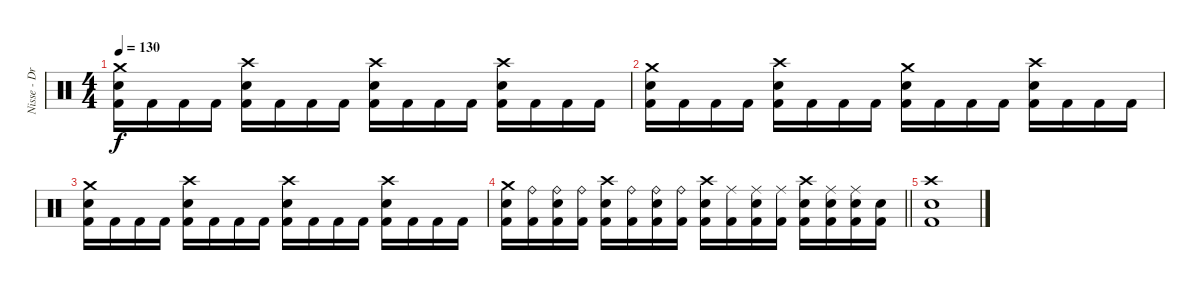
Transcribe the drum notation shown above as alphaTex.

\track ("Nisse - Drums" "Nisse - Dr") {instrument percussion}
\staff {score}
\articulation defaults
\ts (4 4)
\tempo 130
\clef neutral
\ks c
("Crash medium (hit)" "Electric Snare (hit)" "Kick (hit) 2").16{dy f} "Kick (hit) 2".16 "Kick (hit) 2".16 "Kick (hit) 2".16 ("Crash high (hit)" "Electric Snare (hit)" "Kick (hit) 2").16 "Kick (hit) 2".16 "Kick (hit) 2".16 "Kick (hit) 2".16 ("Crash high (hit)" "Electric Snare (hit)" "Kick (hit) 2").16 "Kick (hit) 2".16 "Kick (hit) 2".16 "Kick (hit) 2".16 ("Crash high (hit)" "Electric Snare (hit)" "Kick (hit) 2").16 "Kick (hit) 2".16 "Kick (hit) 2".16 "Kick (hit) 2".16 |
("Crash medium (hit)" "Electric Snare (hit)" "Kick (hit) 2").16 "Kick (hit) 2".16 "Kick (hit) 2".16 "Kick (hit) 2".16 ("Crash high (hit)" "Electric Snare (hit)" "Kick (hit) 2").16 "Kick (hit) 2".16 "Kick (hit) 2".16 "Kick (hit) 2".16 ("Crash medium (hit)" "Electric Snare (hit)" "Kick (hit) 2").16 "Kick (hit) 2".16 "Kick (hit) 2".16 "Kick (hit) 2".16 ("Crash high (hit)" "Electric Snare (hit)" "Kick (hit) 2").16 "Kick (hit) 2".16 "Kick (hit) 2".16 "Kick (hit) 2".16 |
("Crash medium (hit)" "Electric Snare (hit)" "Kick (hit) 2").16 "Kick (hit) 2".16 "Kick (hit) 2".16 "Kick (hit) 2".16 ("Crash high (hit)" "Electric Snare (hit)" "Kick (hit) 2").16 "Kick (hit) 2".16 "Kick (hit) 2".16 "Kick (hit) 2".16 ("Crash high (hit)" "Electric Snare (hit)" "Kick (hit) 2").16 "Kick (hit) 2".16 "Kick (hit) 2".16 "Kick (hit) 2".16 ("Crash high (hit)" "Electric Snare (hit)" "Kick (hit) 2").16 "Kick (hit) 2".16 "Kick (hit) 2".16 "Kick (hit) 2".16 |
\barLineRight lightlight
("Crash medium (hit)" "Electric Snare (hit)" "Kick (hit) 2").16 ("Ride (bell)" "Kick (hit) 2").16 ("Ride (bell)" "Electric Snare (hit)" "Kick (hit) 2").16 ("Ride (bell)" "Kick (hit) 2").16 ("Crash high (hit)" "Electric Snare (hit)" "Kick (hit) 2").16 ("Ride (bell)" "Kick (hit) 2").16 ("Ride (bell)" "Electric Snare (hit)" "Kick (hit) 2").16 ("Ride (bell)" "Kick (hit) 2").16 ("Crash high (hit)" "Electric Snare (hit)" "Kick (hit) 2").16 ("Ride (middle)" "Kick (hit) 2").16 ("Ride (middle)" "Electric Snare (hit)" "Kick (hit) 2").16 ("Ride (middle)" "Kick (hit) 2").16 ("Crash high (hit)" "Electric Snare (hit)" "Kick (hit) 2").16 ("Ride (middle)" "Electric Snare (hit)" "Kick (hit) 2").16 ("Ride (middle)" "Electric Snare (hit)" "Kick (hit) 2").16 ("Electric Snare (hit)" "Kick (hit) 2").16 |
("Crash high (hit)" "Electric Snare (hit)" "Kick (hit) 2").1
